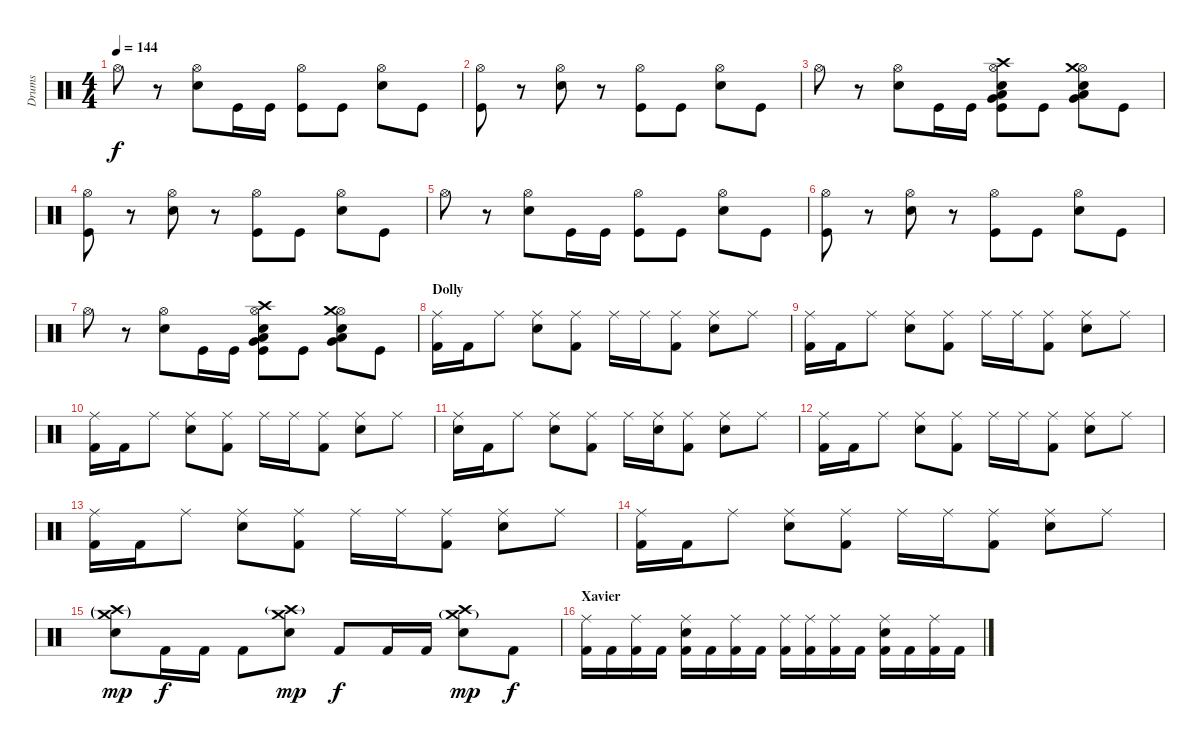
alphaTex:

\track ("Drums" "Drums") {instrument percussion}
\staff {score}
\articulation defaults
\ts (4 4)
\tempo 144
\clef neutral
\ks c "Hi-Hat (open)".8{dy f}
r.8 ("Hi-Hat (open)" "Snare (hit) 2").8 "Kick (hit)".16 "Kick (hit)".16 ("Hi-Hat (open)" "Kick (hit)").8 "Kick (hit)".8 ("Hi-Hat (open)" "Snare (hit) 2").8 "Kick (hit)".8 |
("Hi-Hat (open)" "Kick (hit)").8 r.8 ("Hi-Hat (open)" "Snare (hit) 2").8 r.8 ("Hi-Hat (open)" "Kick (hit)").8 "Kick (hit)".8 ("Hi-Hat (open)" "Snare (hit) 2").8 "Kick (hit)".8 |
"Hi-Hat (open)".8 r.8 ("Hi-Hat (open)" "Snare (hit) 2").8 "Kick (hit)".16 "Kick (hit)".16 ("Hi-Hat (open)" "Crash high (hit)" "Low Tom (hit)" "Snare (hit) 2" "Very Low Tom (hit)" "Kick (hit)").8 "Kick (hit)".8 ("Hi-Hat (open)" "Crash medium (hit)" "Low Tom (hit)" "Snare (hit) 2" "Very Low Tom (hit)").8 "Kick (hit)".8 |
("Hi-Hat (open)" "Kick (hit)").8 r.8 ("Hi-Hat (open)" "Snare (hit) 2").8 r.8 ("Hi-Hat (open)" "Kick (hit)").8 "Kick (hit)".8 ("Hi-Hat (open)" "Snare (hit) 2").8 "Kick (hit)".8 |
"Hi-Hat (open)".8 r.8 ("Hi-Hat (open)" "Snare (hit) 2").8 "Kick (hit)".16 "Kick (hit)".16 ("Hi-Hat (open)" "Kick (hit)").8 "Kick (hit)".8 ("Hi-Hat (open)" "Snare (hit) 2").8 "Kick (hit)".8 |
("Hi-Hat (open)" "Kick (hit)").8 r.8 ("Hi-Hat (open)" "Snare (hit) 2").8 r.8 ("Hi-Hat (open)" "Kick (hit)").8 "Kick (hit)".8 ("Hi-Hat (open)" "Snare (hit) 2").8 "Kick (hit)".8 |
"Hi-Hat (open)".8 r.8 ("Hi-Hat (open)" "Snare (hit) 2").8 "Kick (hit)".16 "Kick (hit)".16 ("Hi-Hat (open)" "Crash high (hit)" "Low Tom (hit)" "Snare (hit) 2" "Very Low Tom (hit)" "Kick (hit)").8 "Kick (hit)".8 ("Hi-Hat (open)" "Crash medium (hit)" "Low Tom (hit)" "Snare (hit) 2" "Very Low Tom (hit)").8 "Kick (hit)".8 |
\section ("" "Dolly")
("Ride (middle)" "Kick (hit) 2").16 "Kick (hit) 2".16 "Ride (middle)".8 ("Ride (middle)" "Snare (hit) 2").8 ("Ride (middle)" "Kick (hit) 2").8 "Ride (middle)".16 "Ride (middle)".16 ("Ride (middle)" "Kick (hit) 2").8 ("Ride (middle)" "Snare (hit) 2").8 "Ride (middle)".8 |
("Ride (middle)" "Kick (hit) 2").16 "Kick (hit) 2".16 "Ride (middle)".8 ("Ride (middle)" "Snare (hit) 2").8 ("Ride (middle)" "Kick (hit) 2").8 "Ride (middle)".16 "Ride (middle)".16 ("Ride (middle)" "Kick (hit) 2").8 ("Ride (middle)" "Snare (hit) 2").8 "Ride (middle)".8 |
("Ride (middle)" "Kick (hit) 2").16 "Kick (hit) 2".16 "Ride (middle)".8 ("Ride (middle)" "Snare (hit) 2").8 ("Ride (middle)" "Kick (hit) 2").8 "Ride (middle)".16 "Ride (middle)".16 ("Ride (middle)" "Kick (hit) 2").8 ("Ride (middle)" "Snare (hit) 2").8 "Ride (middle)".8 |
("Ride (middle)" "Snare (hit) 2").16 "Kick (hit) 2".16 "Ride (middle)".8 ("Ride (middle)" "Snare (hit) 2").8 ("Ride (middle)" "Kick (hit) 2").8 "Ride (middle)".16 ("Ride (middle)" "Snare (hit) 2").16 ("Ride (middle)" "Kick (hit) 2").8 ("Ride (middle)" "Snare (hit) 2").8 "Ride (middle)".8 |
("Ride (middle)" "Kick (hit) 2").16 "Kick (hit) 2".16 "Ride (middle)".8 ("Ride (middle)" "Snare (hit) 2").8 ("Ride (middle)" "Kick (hit) 2").8 "Ride (middle)".16 "Ride (middle)".16 ("Ride (middle)" "Kick (hit) 2").8 ("Ride (middle)" "Snare (hit) 2").8 "Ride (middle)".8 |
("Ride (middle)" "Kick (hit) 2").16 "Kick (hit) 2".16 "Ride (middle)".8 ("Ride (middle)" "Snare (hit) 2").8 ("Ride (middle)" "Kick (hit) 2").8 "Ride (middle)".16 "Ride (middle)".16 ("Ride (middle)" "Kick (hit) 2").8 ("Ride (middle)" "Snare (hit) 2").8 "Ride (middle)".8 |
("Ride (middle)" "Kick (hit) 2").16 "Kick (hit) 2".16 "Ride (middle)".8 ("Ride (middle)" "Snare (hit) 2").8 ("Ride (middle)" "Kick (hit) 2").8 "Ride (middle)".16 "Ride (middle)".16 ("Ride (middle)" "Kick (hit) 2").8 ("Ride (middle)" "Snare (hit) 2").8 "Ride (middle)".8 |
("Crash medium (hit)"{g} "Crash high (hit)"{g} "Snare (hit) 2").8{dy mp} "Kick (hit) 2".16{dy f} "Kick (hit) 2".16 "Kick (hit) 2".8 ("Crash medium (hit)" "Crash high (hit)"{g} "Snare (hit) 2").8{dy mp} "Kick (hit) 2".8{dy f} "Kick (hit) 2".16 "Kick (hit) 2".16 ("Crash medium (hit)"{g} "Crash high (hit)" "Snare (hit) 2").8{dy mp} "Kick (hit) 2".8{dy f} |
\section ("" "Xavier")
("Ride (middle)" "Kick (hit) 2").16 "Kick (hit) 2".16 ("Ride (middle)" "Kick (hit) 2").16 "Kick (hit) 2".16 ("Ride (middle)" "Snare (hit) 2" "Kick (hit) 2").16 "Kick (hit) 2".16 ("Ride (middle)" "Kick (hit) 2").16 "Kick (hit) 2".16 ("Ride (middle)" "Kick (hit) 2").16 ("Ride (middle)" "Kick (hit) 2").16 ("Ride (middle)" "Kick (hit) 2").16 "Kick (hit) 2".16 ("Ride (middle)" "Snare (hit) 2" "Kick (hit) 2").16 "Kick (hit) 2".16 ("Ride (middle)" "Kick (hit) 2").16 "Kick (hit) 2".16
